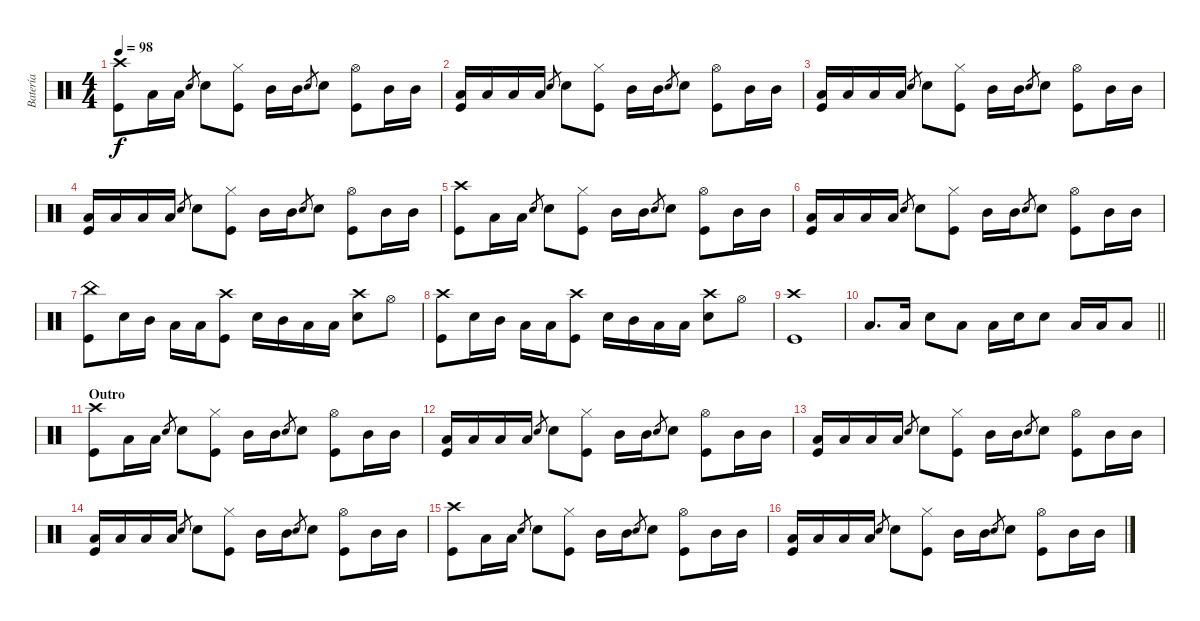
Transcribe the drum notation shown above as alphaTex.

\track ("Batería" "Batería") {instrument percussion}
\staff {score}
\articulation defaults
\ts (4 4)
\tempo 98
\clef neutral
\ks c
("Crash high (hit)" "Kick (hit)").8{dy f} "Low Tom (hit)".16 "Low Tom (hit)".16 "Snare (hit) 2".8{gr} "Snare (hit) 2".8 ("Hi-Hat (closed)" "Kick (hit)").8 "Mid Tom (hit)".16 "Mid Tom (hit)".16 "Snare (hit) 2".8{gr} "Snare (hit) 2".8 ("Hi-Hat (open)" "Kick (hit)").8 "Mid Tom (hit)".16 "Mid Tom (hit)".16 |
("Low Tom (hit)" "Kick (hit)").16 "Low Tom (hit)".16 "Low Floor Tom (hit)".16 "Low Floor Tom (hit)".16 "Snare (hit) 2".8{gr} "Snare (hit) 2".8 ("Hi-Hat (closed)" "Kick (hit)").8 "Mid Tom (hit)".16 "Mid Tom (hit)".16 "Snare (hit) 2".8{gr} "Snare (hit) 2".8 ("Hi-Hat (open)" "Kick (hit)").8 "Mid Tom (hit)".16 "Mid Tom (hit)".16 |
("Low Tom (hit)" "Kick (hit)").16 "Low Tom (hit)".16 "Low Floor Tom (hit)".16 "Low Floor Tom (hit)".16 "Snare (hit) 2".8{gr} "Snare (hit) 2".8 ("Hi-Hat (closed)" "Kick (hit)").8 "Mid Tom (hit)".16 "Mid Tom (hit)".16 "Snare (hit) 2".8{gr} "Snare (hit) 2".8 ("Hi-Hat (open)" "Kick (hit)").8 "Mid Tom (hit)".16 "Mid Tom (hit)".16 |
("Low Tom (hit)" "Kick (hit)").16 "Low Tom (hit)".16 "Low Floor Tom (hit)".16 "Low Floor Tom (hit)".16 "Snare (hit) 2".8{gr} "Snare (hit) 2".8 ("Hi-Hat (closed)" "Kick (hit)").8 "Mid Tom (hit)".16 "Mid Tom (hit)".16 "Snare (hit) 2".8{gr} "Snare (hit) 2".8 ("Hi-Hat (open)" "Kick (hit)").8 "Mid Tom (hit)".16 "Mid Tom (hit)".16 |
("Crash high (hit)" "Kick (hit)").8 "Low Tom (hit)".16 "Low Tom (hit)".16 "Snare (hit) 2".8{gr} "Snare (hit) 2".8 ("Hi-Hat (closed)" "Kick (hit)").8 "Mid Tom (hit)".16 "Mid Tom (hit)".16 "Snare (hit) 2".8{gr} "Snare (hit) 2".8 ("Hi-Hat (open)" "Kick (hit)").8 "Mid Tom (hit)".16 "Mid Tom (hit)".16 |
("Low Tom (hit)" "Kick (hit)").16 "Low Tom (hit)".16 "Low Floor Tom (hit)".16 "Low Floor Tom (hit)".16 "Snare (hit) 2".8{gr} "Snare (hit) 2".8 ("Hi-Hat (closed)" "Kick (hit)").8 "Mid Tom (hit)".16 "Mid Tom (hit)".16 "Snare (hit) 2".8{gr} "Snare (hit) 2".8 ("Hi-Hat (open)" "Kick (hit)").8 "Mid Tom (hit)".16 "Mid Tom (hit)".16 |
("China (hit)" "Kick (hit)").8 "Snare (hit) 2".16 "Mid Tom (hit)".16 "Low Tom (hit)".16 "Low Floor Tom (hit)".16 ("Crash high (hit)" "Kick (hit)").8 "Snare (hit) 2".16 "Mid Tom (hit)".16 "Low Tom (hit)".16 "Low Floor Tom (hit)".16 ("Crash high (hit)" "Snare (hit) 2").8 "Hi-Hat (open)".8 |
("Crash high (hit)" "Kick (hit)").8 "Snare (hit) 2".16 "Mid Tom (hit)".16 "Low Tom (hit)".16 "Low Floor Tom (hit)".16 ("Crash high (hit)" "Kick (hit)").8 "Snare (hit) 2".16 "Mid Tom (hit)".16 "Low Tom (hit)".16 "Low Floor Tom (hit)".16 ("Crash high (hit)" "Snare (hit) 2").8 "Hi-Hat (open)".8 |
("Crash high (hit)" "Kick (hit)").1 |
\barLineRight lightlight "Low Tom (hit)".8{d} "Low Tom (hit)".16 "Snare (hit) 2".8 "Low Tom (hit)".8 "Low Tom (hit)".16 "Snare (hit) 2".16 "Snare (hit) 2".8 "Low Tom (hit)".16 "Low Tom (hit)".16 "Low Tom (hit)".8
|
\section ("" "Outro")
("Crash high (hit)" "Kick (hit)").8 "Low Tom (hit)".16 "Low Tom (hit)".16 "Snare (hit) 2".8{gr} "Snare (hit) 2".8 ("Hi-Hat (closed)" "Kick (hit)").8 "Mid Tom (hit)".16 "Mid Tom (hit)".16 "Snare (hit) 2".8{gr} "Snare (hit) 2".8 ("Hi-Hat (open)" "Kick (hit)").8 "Mid Tom (hit)".16 "Mid Tom (hit)".16 |
("Low Tom (hit)" "Kick (hit)").16 "Low Tom (hit)".16 "Low Floor Tom (hit)".16 "Low Floor Tom (hit)".16 "Snare (hit) 2".8{gr} "Snare (hit) 2".8 ("Hi-Hat (closed)" "Kick (hit)").8 "Mid Tom (hit)".16 "Mid Tom (hit)".16 "Snare (hit) 2".8{gr} "Snare (hit) 2".8 ("Hi-Hat (open)" "Kick (hit)").8 "Mid Tom (hit)".16 "Mid Tom (hit)".16 |
("Low Tom (hit)" "Kick (hit)").16 "Low Tom (hit)".16 "Low Floor Tom (hit)".16 "Low Floor Tom (hit)".16 "Snare (hit) 2".8{gr} "Snare (hit) 2".8 ("Hi-Hat (closed)" "Kick (hit)").8 "Mid Tom (hit)".16 "Mid Tom (hit)".16 "Snare (hit) 2".8{gr} "Snare (hit) 2".8 ("Hi-Hat (open)" "Kick (hit)").8 "Mid Tom (hit)".16 "Mid Tom (hit)".16 |
("Low Tom (hit)" "Kick (hit)").16 "Low Tom (hit)".16 "Low Floor Tom (hit)".16 "Low Floor Tom (hit)".16 "Snare (hit) 2".8{gr} "Snare (hit) 2".8 ("Hi-Hat (closed)" "Kick (hit)").8 "Mid Tom (hit)".16 "Mid Tom (hit)".16 "Snare (hit) 2".8{gr} "Snare (hit) 2".8 ("Hi-Hat (open)" "Kick (hit)").8 "Mid Tom (hit)".16 "Mid Tom (hit)".16 |
("Crash high (hit)" "Kick (hit)").8 "Low Tom (hit)".16 "Low Tom (hit)".16 "Snare (hit) 2".8{gr} "Snare (hit) 2".8 ("Hi-Hat (closed)" "Kick (hit)").8 "Mid Tom (hit)".16 "Mid Tom (hit)".16 "Snare (hit) 2".8{gr} "Snare (hit) 2".8 ("Hi-Hat (open)" "Kick (hit)").8 "Mid Tom (hit)".16 "Mid Tom (hit)".16 |
("Low Tom (hit)" "Kick (hit)").16 "Low Tom (hit)".16 "Low Floor Tom (hit)".16 "Low Floor Tom (hit)".16 "Snare (hit) 2".8{gr} "Snare (hit) 2".8 ("Hi-Hat (closed)" "Kick (hit)").8 "Mid Tom (hit)".16 "Mid Tom (hit)".16 "Snare (hit) 2".8{gr} "Snare (hit) 2".8 ("Hi-Hat (open)" "Kick (hit)").8 "Mid Tom (hit)".16 "Mid Tom (hit)".16
